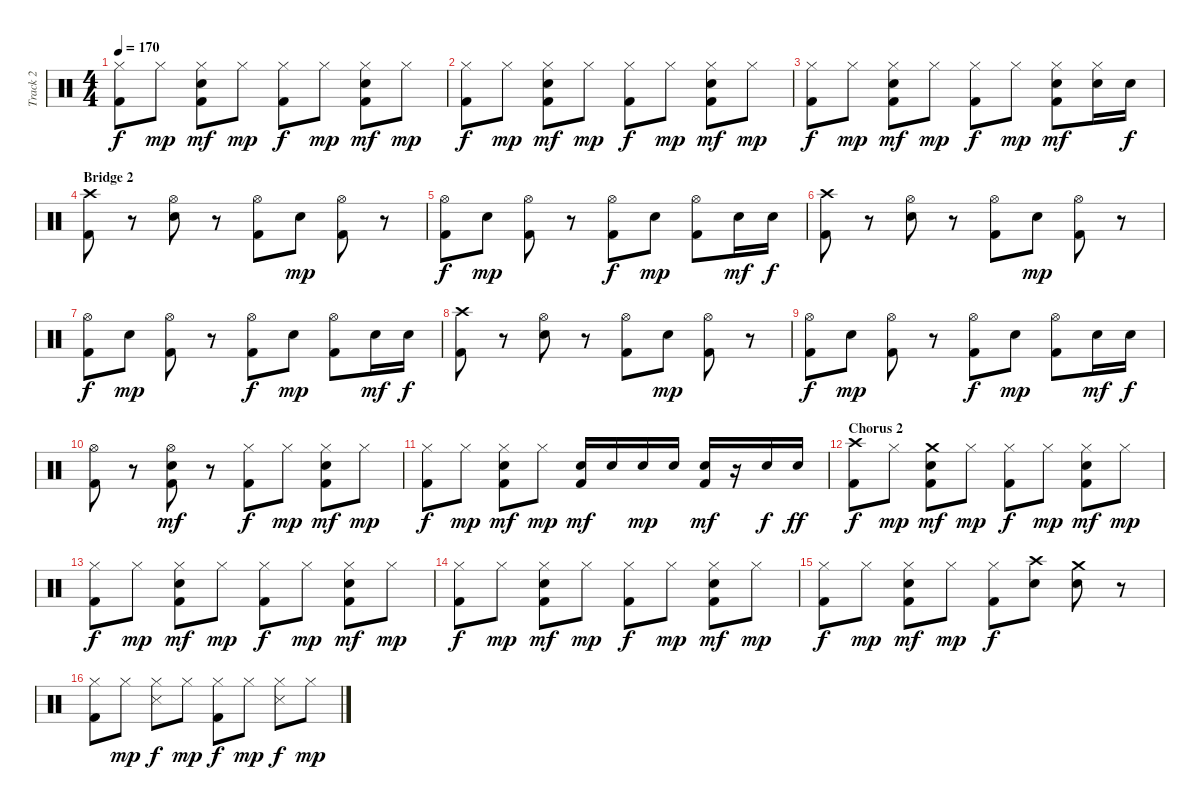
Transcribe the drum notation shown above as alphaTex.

\track ("Track 2" "Track 2") {instrument percussion}
\staff {score}
\articulation defaults
\ts (4 4)
\tempo 170
\clef neutral
\ks c
("Hi-Hat (closed)" "Kick (hit) 2").8{dy f} "Hi-Hat (closed)".8{dy mp} ("Hi-Hat (closed)" "Electric Snare (hit)" "Kick (hit) 2").8{dy mf} "Hi-Hat (closed)".8{dy mp} ("Hi-Hat (closed)" "Kick (hit) 2").8{dy f} "Hi-Hat (closed)".8{dy mp} ("Hi-Hat (closed)" "Electric Snare (hit)" "Kick (hit) 2").8{dy mf} "Hi-Hat (closed)".8{dy mp} |
("Hi-Hat (closed)" "Kick (hit) 2").8{dy f} "Hi-Hat (closed)".8{dy mp} ("Hi-Hat (closed)" "Electric Snare (hit)" "Kick (hit) 2").8{dy mf} "Hi-Hat (closed)".8{dy mp} ("Hi-Hat (closed)" "Kick (hit) 2").8{dy f} "Hi-Hat (closed)".8{dy mp} ("Hi-Hat (closed)" "Electric Snare (hit)" "Kick (hit) 2").8{dy mf} "Hi-Hat (closed)".8{dy mp} |
("Hi-Hat (closed)" "Kick (hit) 2").8{dy f} "Hi-Hat (closed)".8{dy mp} ("Hi-Hat (closed)" "Electric Snare (hit)" "Kick (hit) 2").8{dy mf} "Hi-Hat (closed)".8{dy mp} ("Hi-Hat (closed)" "Kick (hit) 2").8{dy f} "Hi-Hat (closed)".8{dy mp} ("Hi-Hat (closed)" "Electric Snare (hit)" "Kick (hit) 2").8{dy mf} ("Hi-Hat (closed)" "Electric Snare (hit)").16 "Electric Snare (hit)".16{dy f} |
\section ("" "Bridge 2")
("Crash high (hit)" "Kick (hit) 2").8 r.8 ("Hi-Hat (open)" "Electric Snare (hit)").8 r.8 ("Hi-Hat (open)" "Kick (hit) 2").8 "Electric Snare (hit)".8{dy mp} ("Hi-Hat (open)" "Kick (hit) 2").8 r.8 |
("Hi-Hat (open)" "Kick (hit) 2").8{dy f} "Electric Snare (hit)".8{dy mp} ("Hi-Hat (open)" "Kick (hit) 2").8 r.8 ("Hi-Hat (open)" "Kick (hit) 2").8{dy f} "Electric Snare (hit)".8{dy mp} ("Hi-Hat (open)" "Kick (hit) 2").8 "Electric Snare (hit)".16{dy mf} "Electric Snare (hit)".16{dy f} |
("Crash high (hit)" "Kick (hit) 2").8 r.8 ("Hi-Hat (open)" "Electric Snare (hit)").8 r.8 ("Hi-Hat (open)" "Kick (hit) 2").8 "Electric Snare (hit)".8{dy mp} ("Hi-Hat (open)" "Kick (hit) 2").8 r.8 |
("Hi-Hat (open)" "Kick (hit) 2").8{dy f} "Electric Snare (hit)".8{dy mp} ("Hi-Hat (open)" "Kick (hit) 2").8 r.8 ("Hi-Hat (open)" "Kick (hit) 2").8{dy f} "Electric Snare (hit)".8{dy mp} ("Hi-Hat (open)" "Kick (hit) 2").8 "Electric Snare (hit)".16{dy mf} "Electric Snare (hit)".16{dy f} |
("Crash high (hit)" "Kick (hit) 2").8 r.8 ("Hi-Hat (open)" "Electric Snare (hit)").8 r.8 ("Hi-Hat (open)" "Kick (hit) 2").8 "Electric Snare (hit)".8{dy mp} ("Hi-Hat (open)" "Kick (hit) 2").8 r.8 |
("Hi-Hat (open)" "Kick (hit) 2").8{dy f} "Electric Snare (hit)".8{dy mp} ("Hi-Hat (open)" "Kick (hit) 2").8 r.8 ("Hi-Hat (open)" "Kick (hit) 2").8{dy f} "Electric Snare (hit)".8{dy mp} ("Hi-Hat (open)" "Kick (hit) 2").8 "Electric Snare (hit)".16{dy mf} "Electric Snare (hit)".16{dy f} |
("Hi-Hat (open)" "Kick (hit) 2").8 r.8 ("Hi-Hat (open)" "Electric Snare (hit)" "Kick (hit) 2").8{dy mf} r.8 ("Hi-Hat (closed)" "Kick (hit) 2").8{dy f} "Hi-Hat (closed)".8{dy mp} ("Hi-Hat (closed)" "Electric Snare (hit)" "Kick (hit) 2").8{dy mf} "Hi-Hat (closed)".8{dy mp} |
("Hi-Hat (closed)" "Kick (hit) 2").8{dy f} "Hi-Hat (closed)".8{dy mp} ("Hi-Hat (closed)" "Electric Snare (hit)" "Kick (hit) 2").8{dy mf} "Hi-Hat (closed)".8{dy mp} ("Electric Snare (hit)" "Kick (hit) 2").16{dy mf} "Electric Snare (hit)".16 "Electric Snare (hit)".16{dy mp} "Electric Snare (hit)".16 ("Electric Snare (hit)" "Kick (hit) 2").16{dy mf} r.16 "Electric Snare (hit)".16{dy f} "Electric Snare (hit)".16{dy ff} |
\section ("" "Chorus 2")
("Crash high (hit)" "Kick (hit) 2").8{dy f} "Hi-Hat (closed)".8{dy mp} ("Crash medium (hit)" "Electric Snare (hit)" "Kick (hit) 2").8{dy mf} "Hi-Hat (closed)".8{dy mp} ("Hi-Hat (closed)" "Kick (hit) 2").8{dy f} "Hi-Hat (closed)".8{dy mp} ("Hi-Hat (closed)" "Electric Snare (hit)" "Kick (hit) 2").8{dy mf} "Hi-Hat (closed)".8{dy mp} |
("Hi-Hat (closed)" "Kick (hit) 2").8{dy f} "Hi-Hat (closed)".8{dy mp} ("Hi-Hat (closed)" "Electric Snare (hit)" "Kick (hit) 2").8{dy mf} "Hi-Hat (closed)".8{dy mp} ("Hi-Hat (closed)" "Kick (hit) 2").8{dy f} "Hi-Hat (closed)".8{dy mp} ("Hi-Hat (closed)" "Electric Snare (hit)" "Kick (hit) 2").8{dy mf} "Hi-Hat (closed)".8{dy mp} |
("Hi-Hat (closed)" "Kick (hit) 2").8{dy f} "Hi-Hat (closed)".8{dy mp} ("Hi-Hat (closed)" "Electric Snare (hit)" "Kick (hit) 2").8{dy mf} "Hi-Hat (closed)".8{dy mp} ("Hi-Hat (closed)" "Kick (hit) 2").8{dy f} "Hi-Hat (closed)".8{dy mp} ("Hi-Hat (closed)" "Electric Snare (hit)" "Kick (hit) 2").8{dy mf} "Hi-Hat (closed)".8{dy mp} |
("Hi-Hat (closed)" "Kick (hit) 2").8{dy f} "Hi-Hat (closed)".8{dy mp} ("Hi-Hat (closed)" "Electric Snare (hit)" "Kick (hit) 2").8{dy mf} "Hi-Hat (closed)".8{dy mp} ("Hi-Hat (closed)" "Kick (hit) 2").8{dy f} ("Crash high (hit)" "Electric Snare (hit)").8 ("Crash medium (hit)" "Electric Snare (hit)").8 r.8 |
("Hi-Hat (closed)" "Kick (hit) 2").8 "Hi-Hat (closed)".8{dy mp} ("Hi-Hat (closed)" "Snare (side stick) 3").8{dy f} "Hi-Hat (closed)".8{dy mp} ("Hi-Hat (closed)" "Kick (hit) 2").8{dy f} "Hi-Hat (closed)".8{dy mp} ("Hi-Hat (closed)" "Snare (side stick) 3").8{dy f} "Hi-Hat (closed)".8{dy mp}
